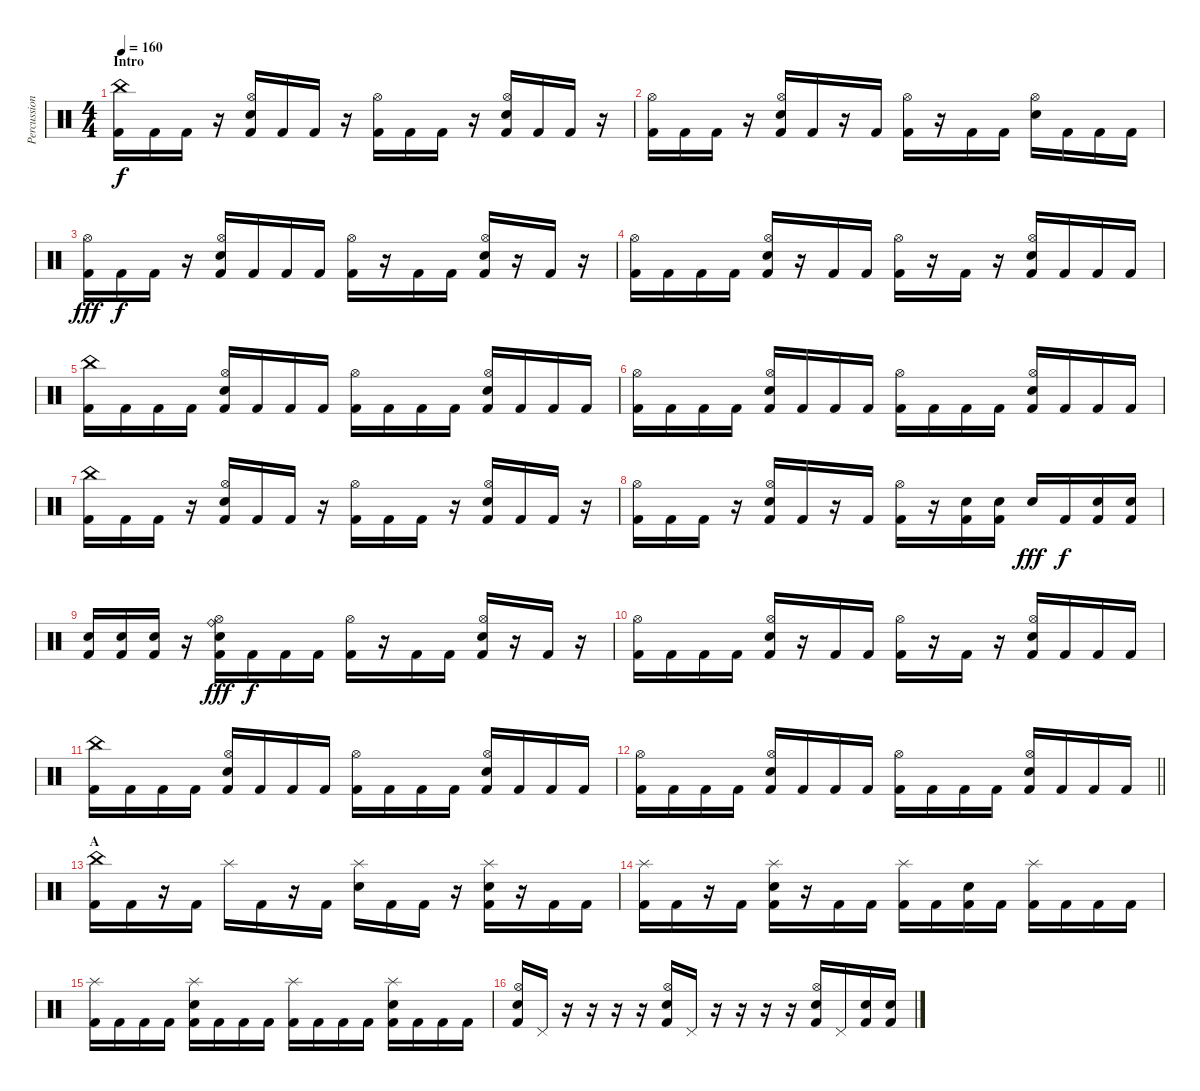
\track ("Percussion" "Percussion") {instrument percussion}
\staff {score}
\articulation defaults
\ts (4 4)
\section ("" "Intro")
\tempo 160
\clef neutral
\ks c
("China (hit)" "Kick (hit) 2").16{dy f} "Kick (hit) 2".16 "Kick (hit) 2".16 r.16 ("Hi-Hat (open)" "Electric Snare (hit)" "Kick (hit) 2").16 "Kick (hit) 2".16 "Kick (hit) 2".16 r.16 ("Hi-Hat (open)" "Kick (hit) 2").16 "Kick (hit) 2".16 "Kick (hit) 2".16 r.16 ("Hi-Hat (open)" "Electric Snare (hit)" "Kick (hit) 2").16 "Kick (hit) 2".16 "Kick (hit) 2".16 r.16 |
("Hi-Hat (open)" "Kick (hit) 2").16 "Kick (hit) 2".16 "Kick (hit) 2".16 r.16 ("Hi-Hat (open)" "Electric Snare (hit)" "Kick (hit) 2").16 "Kick (hit) 2".16 r.16 "Kick (hit) 2".16 ("Hi-Hat (open)" "Kick (hit) 2").16 r.16 "Kick (hit) 2".16 "Kick (hit) 2".16 ("Hi-Hat (open)" "Electric Snare (hit)").16 "Kick (hit) 2".16 "Kick (hit) 2".16 "Kick (hit) 2".16 |
("Hi-Hat (open)" "Kick (hit) 2").16{dy fff} "Kick (hit) 2".16{dy f} "Kick (hit) 2".16 r.16 ("Hi-Hat (open)" "Electric Snare (hit)" "Kick (hit) 2").16 "Kick (hit) 2".16 "Kick (hit) 2".16 "Kick (hit) 2".16 ("Hi-Hat (open)" "Kick (hit) 2").16 r.16 "Kick (hit) 2".16 "Kick (hit) 2".16 ("Hi-Hat (open)" "Electric Snare (hit)" "Kick (hit) 2").16 r.16 "Kick (hit) 2".16 r.16 |
("Hi-Hat (open)" "Kick (hit) 2").16 "Kick (hit) 2".16 "Kick (hit) 2".16 "Kick (hit) 2".16 ("Hi-Hat (open)" "Electric Snare (hit)" "Kick (hit) 2").16 r.16 "Kick (hit) 2".16 "Kick (hit) 2".16 ("Hi-Hat (open)" "Kick (hit) 2").16 r.16 "Kick (hit) 2".16 r.16 ("Hi-Hat (open)" "Electric Snare (hit)" "Kick (hit) 2").16 "Kick (hit) 2".16 "Kick (hit) 2".16 "Kick (hit) 2".16 |
("China (hit)" "Kick (hit) 2").16 "Kick (hit) 2".16 "Kick (hit) 2".16 "Kick (hit) 2".16 ("Hi-Hat (open)" "Electric Snare (hit)" "Kick (hit) 2").16 "Kick (hit) 2".16 "Kick (hit) 2".16 "Kick (hit) 2".16 ("Hi-Hat (open)" "Kick (hit) 2").16 "Kick (hit) 2".16 "Kick (hit) 2".16 "Kick (hit) 2".16 ("Hi-Hat (open)" "Electric Snare (hit)" "Kick (hit) 2").16 "Kick (hit) 2".16 "Kick (hit) 2".16 "Kick (hit) 2".16 |
("Hi-Hat (open)" "Kick (hit) 2").16 "Kick (hit) 2".16 "Kick (hit) 2".16 "Kick (hit) 2".16 ("Hi-Hat (open)" "Electric Snare (hit)" "Kick (hit) 2").16 "Kick (hit) 2".16 "Kick (hit) 2".16 "Kick (hit) 2".16 ("Hi-Hat (open)" "Kick (hit) 2").16 "Kick (hit) 2".16 "Kick (hit) 2".16 "Kick (hit) 2".16 ("Hi-Hat (open)" "Electric Snare (hit)" "Kick (hit) 2").16 "Kick (hit) 2".16 "Kick (hit) 2".16 "Kick (hit) 2".16 |
("China (hit)" "Kick (hit) 2").16 "Kick (hit) 2".16 "Kick (hit) 2".16 r.16 ("Hi-Hat (open)" "Electric Snare (hit)" "Kick (hit) 2").16 "Kick (hit) 2".16 "Kick (hit) 2".16 r.16 ("Hi-Hat (open)" "Kick (hit) 2").16 "Kick (hit) 2".16 "Kick (hit) 2".16 r.16 ("Hi-Hat (open)" "Electric Snare (hit)" "Kick (hit) 2").16 "Kick (hit) 2".16 "Kick (hit) 2".16 r.16 |
("Hi-Hat (open)" "Kick (hit) 2").16 "Kick (hit) 2".16 "Kick (hit) 2".16 r.16 ("Hi-Hat (open)" "Electric Snare (hit)" "Kick (hit) 2").16 "Kick (hit) 2".16 r.16 "Kick (hit) 2".16 ("Hi-Hat (open)" "Kick (hit) 2").16 r.16 ("Electric Snare (hit)" "Kick (hit) 2").16 ("Electric Snare (hit)" "Kick (hit) 2").16 "Electric Snare (hit)".16{dy fff} "Kick (hit) 2".16{dy f} ("Electric Snare (hit)" "Kick (hit) 2").16 ("Electric Snare (hit)" "Kick (hit) 2").16 |
("Electric Snare (hit)" "Kick (hit) 2").16 ("Electric Snare (hit)" "Kick (hit) 2").16 ("Electric Snare (hit)" "Kick (hit) 2").16 r.16 ("Ride (bell)" "Hi-Hat (open)" "Electric Snare (hit)" "Kick (hit) 2").16{dy fff} "Kick (hit) 2".16{dy f} "Kick (hit) 2".16 "Kick (hit) 2".16 ("Hi-Hat (open)" "Kick (hit) 2").16 r.16 "Kick (hit) 2".16 "Kick (hit) 2".16 ("Hi-Hat (open)" "Electric Snare (hit)" "Kick (hit) 2").16 r.16 "Kick (hit) 2".16 r.16 |
("Hi-Hat (open)" "Kick (hit) 2").16 "Kick (hit) 2".16 "Kick (hit) 2".16 "Kick (hit) 2".16 ("Hi-Hat (open)" "Electric Snare (hit)" "Kick (hit) 2").16 r.16 "Kick (hit) 2".16 "Kick (hit) 2".16 ("Hi-Hat (open)" "Kick (hit) 2").16 r.16 "Kick (hit) 2".16 r.16 ("Hi-Hat (open)" "Electric Snare (hit)" "Kick (hit) 2").16 "Kick (hit) 2".16 "Kick (hit) 2".16 "Kick (hit) 2".16 |
("China (hit)" "Kick (hit) 2").16 "Kick (hit) 2".16 "Kick (hit) 2".16 "Kick (hit) 2".16 ("Hi-Hat (open)" "Electric Snare (hit)" "Kick (hit) 2").16 "Kick (hit) 2".16 "Kick (hit) 2".16 "Kick (hit) 2".16 ("Hi-Hat (open)" "Kick (hit) 2").16 "Kick (hit) 2".16 "Kick (hit) 2".16 "Kick (hit) 2".16 ("Hi-Hat (open)" "Electric Snare (hit)" "Kick (hit) 2").16 "Kick (hit) 2".16 "Kick (hit) 2".16 "Kick (hit) 2".16 |
\barLineRight lightlight
("Hi-Hat (open)" "Kick (hit) 2").16 "Kick (hit) 2".16 "Kick (hit) 2".16 "Kick (hit) 2".16 ("Hi-Hat (open)" "Electric Snare (hit)" "Kick (hit) 2").16 "Kick (hit) 2".16 "Kick (hit) 2".16 "Kick (hit) 2".16 ("Hi-Hat (open)" "Kick (hit) 2").16 "Kick (hit) 2".16 "Kick (hit) 2".16 "Kick (hit) 2".16 ("Hi-Hat (open)" "Electric Snare (hit)" "Kick (hit) 2").16 "Kick (hit) 2".16 "Kick (hit) 2".16 "Kick (hit) 2".16 |
\section ("" "A")
("China (hit)" "Kick (hit) 2").16 "Kick (hit) 2".16 r.16 "Kick (hit) 2".16 "Splash (hit)".16 "Kick (hit) 2".16 r.16 "Kick (hit) 2".16 ("Splash (hit)" "Electric Snare (hit)").16 "Kick (hit) 2".16 "Kick (hit) 2".16 r.16 ("Splash (hit)" "Electric Snare (hit)" "Kick (hit) 2").16 r.16 "Kick (hit) 2".16 "Kick (hit) 2".16 |
("Splash (hit)" "Kick (hit) 2").16 "Kick (hit) 2".16 r.16 "Kick (hit) 2".16 ("Splash (hit)" "Electric Snare (hit)" "Kick (hit) 2").16 r.16 "Kick (hit) 2".16 "Kick (hit) 2".16 ("Splash (hit)" "Kick (hit) 2").16 "Kick (hit) 2".16 ("Electric Snare (hit)" "Kick (hit) 2").16 "Kick (hit) 2".16 ("Splash (hit)" "Kick (hit) 2").16 "Kick (hit) 2".16 "Kick (hit) 2".16 "Kick (hit) 2".16 |
("Splash (hit)" "Kick (hit) 2").16 "Kick (hit) 2".16 "Kick (hit) 2".16 "Kick (hit) 2".16 ("Splash (hit)" "Electric Snare (hit)" "Kick (hit) 2").16 "Kick (hit) 2".16 "Kick (hit) 2".16 "Kick (hit) 2".16 ("Splash (hit)" "Kick (hit) 2").16 "Kick (hit) 2".16 "Kick (hit) 2".16 "Kick (hit) 2".16 ("Splash (hit)" "Electric Snare (hit)" "Kick (hit) 2").16 "Kick (hit) 2".16 "Kick (hit) 2".16 "Kick (hit) 2".16 |
("Hi-Hat (open)" "Electric Snare (hit)" "Kick (hit) 2").16 "Pedal Hi-Hat (hit)".16 r.16 r.16 r.16 r.16 ("Hi-Hat (open)" "Electric Snare (hit)" "Kick (hit) 2").16 "Pedal Hi-Hat (hit)".16 r.16 r.16 r.16 r.16 ("Hi-Hat (open)" "Electric Snare (hit)" "Kick (hit) 2").16 "Pedal Hi-Hat (hit)".16 ("Electric Snare (hit)" "Kick (hit) 2").16 ("Electric Snare (hit)" "Kick (hit) 2").16
